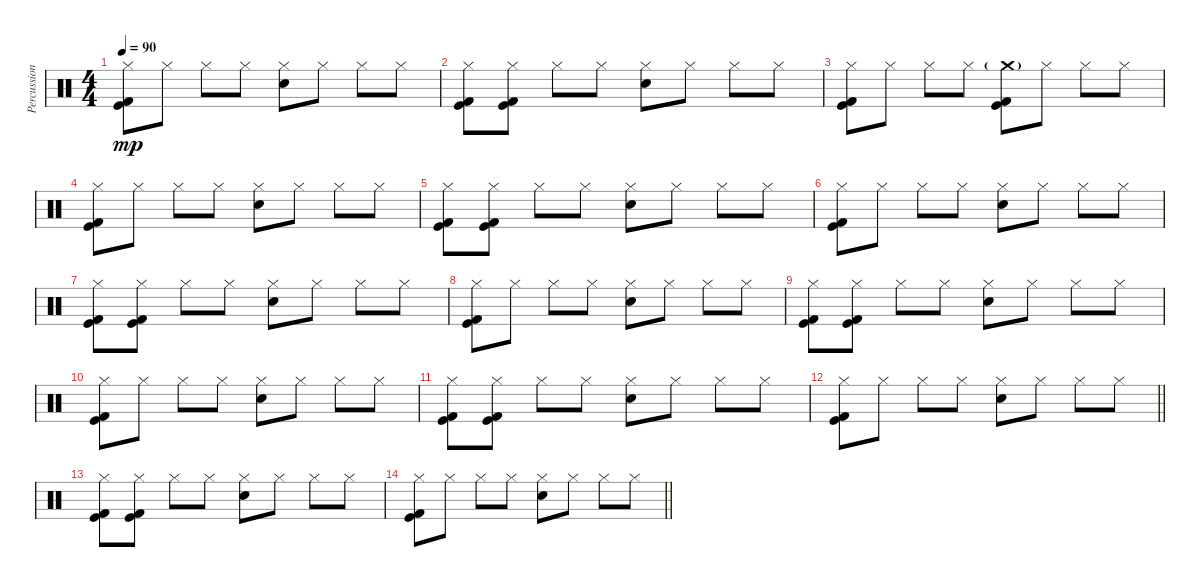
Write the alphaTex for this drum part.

\track ("Percussion" "Percussion") {instrument percussion}
\staff {score}
\articulation defaults
\ts (4 4)
\tempo 90
\clef neutral
\ks c
("Hi-Hat (closed)" "Kick (hit)" "Kick (hit) 2").8{dy mp} "Hi-Hat (closed)".8 "Hi-Hat (closed)".8 "Hi-Hat (closed)".8 ("Hi-Hat (closed)" "Electric Snare (hit)").8 "Hi-Hat (closed)".8 "Hi-Hat (closed)".8 "Hi-Hat (closed)".8 |
("Hi-Hat (closed)" "Kick (hit)" "Kick (hit) 2").8 ("Hi-Hat (closed)" "Kick (hit)" "Kick (hit) 2").8 "Hi-Hat (closed)".8 "Hi-Hat (closed)".8 ("Hi-Hat (closed)" "Electric Snare (hit)").8 "Hi-Hat (closed)".8 "Hi-Hat (closed)".8 "Hi-Hat (closed)".8 |
("Hi-Hat (closed)" "Kick (hit)" "Kick (hit) 2").8{volume 8} "Hi-Hat (closed)".8 "Hi-Hat (closed)".8 "Hi-Hat (closed)".8 ("Crash medium (hit)"{g} "Kick (hit)" "Kick (hit) 2").8 "Hi-Hat (closed)".8 "Hi-Hat (closed)".8 "Hi-Hat (closed)".8 |
("Hi-Hat (closed)" "Kick (hit)" "Kick (hit) 2").8 "Hi-Hat (closed)".8 "Hi-Hat (closed)".8 "Hi-Hat (closed)".8 ("Hi-Hat (closed)" "Electric Snare (hit)").8 "Hi-Hat (closed)".8 "Hi-Hat (closed)".8 "Hi-Hat (closed)".8 |
("Hi-Hat (closed)" "Kick (hit)" "Kick (hit) 2").8 ("Hi-Hat (closed)" "Kick (hit)" "Kick (hit) 2").8 "Hi-Hat (closed)".8 "Hi-Hat (closed)".8 ("Hi-Hat (closed)" "Electric Snare (hit)").8 "Hi-Hat (closed)".8 "Hi-Hat (closed)".8 "Hi-Hat (closed)".8 |
("Hi-Hat (closed)" "Kick (hit)" "Kick (hit) 2").8 "Hi-Hat (closed)".8 "Hi-Hat (closed)".8 "Hi-Hat (closed)".8 ("Hi-Hat (closed)" "Electric Snare (hit)").8 "Hi-Hat (closed)".8 "Hi-Hat (closed)".8 "Hi-Hat (closed)".8 |
("Hi-Hat (closed)" "Kick (hit)" "Kick (hit) 2").8{volume 4} ("Hi-Hat (closed)" "Kick (hit)" "Kick (hit) 2").8 "Hi-Hat (closed)".8 "Hi-Hat (closed)".8 ("Hi-Hat (closed)" "Electric Snare (hit)").8 "Hi-Hat (closed)".8 "Hi-Hat (closed)".8 "Hi-Hat (closed)".8 |
("Hi-Hat (closed)" "Kick (hit)" "Kick (hit) 2").8 "Hi-Hat (closed)".8 "Hi-Hat (closed)".8 "Hi-Hat (closed)".8 ("Hi-Hat (closed)" "Electric Snare (hit)").8 "Hi-Hat (closed)".8 "Hi-Hat (closed)".8 "Hi-Hat (closed)".8 |
("Hi-Hat (closed)" "Kick (hit)" "Kick (hit) 2").8 ("Hi-Hat (closed)" "Kick (hit)" "Kick (hit) 2").8 "Hi-Hat (closed)".8 "Hi-Hat (closed)".8 ("Hi-Hat (closed)" "Electric Snare (hit)").8 "Hi-Hat (closed)".8 "Hi-Hat (closed)".8 "Hi-Hat (closed)".8 |
("Hi-Hat (closed)" "Kick (hit)" "Kick (hit) 2").8 "Hi-Hat (closed)".8 "Hi-Hat (closed)".8 "Hi-Hat (closed)".8 ("Hi-Hat (closed)" "Electric Snare (hit)").8 "Hi-Hat (closed)".8 "Hi-Hat (closed)".8 "Hi-Hat (closed)".8 |
("Hi-Hat (closed)" "Kick (hit)" "Kick (hit) 2").8{volume 0} ("Hi-Hat (closed)" "Kick (hit)" "Kick (hit) 2").8 "Hi-Hat (closed)".8 "Hi-Hat (closed)".8 ("Hi-Hat (closed)" "Electric Snare (hit)").8 "Hi-Hat (closed)".8 "Hi-Hat (closed)".8 "Hi-Hat (closed)".8 |
\barLineRight lightlight
("Hi-Hat (closed)" "Kick (hit)" "Kick (hit) 2").8 "Hi-Hat (closed)".8 "Hi-Hat (closed)".8 "Hi-Hat (closed)".8 ("Hi-Hat (closed)" "Electric Snare (hit)").8 "Hi-Hat (closed)".8 "Hi-Hat (closed)".8 "Hi-Hat (closed)".8 |
("Hi-Hat (closed)" "Kick (hit)" "Kick (hit) 2").8 ("Hi-Hat (closed)" "Kick (hit)" "Kick (hit) 2").8 "Hi-Hat (closed)".8 "Hi-Hat (closed)".8 ("Hi-Hat (closed)" "Electric Snare (hit)").8 "Hi-Hat (closed)".8 "Hi-Hat (closed)".8 "Hi-Hat (closed)".8 |
\barLineRight lightlight
("Hi-Hat (closed)" "Kick (hit)" "Kick (hit) 2").8 "Hi-Hat (closed)".8 "Hi-Hat (closed)".8 "Hi-Hat (closed)".8 ("Hi-Hat (closed)" "Electric Snare (hit)").8 "Hi-Hat (closed)".8 "Hi-Hat (closed)".8 "Hi-Hat (closed)".8
